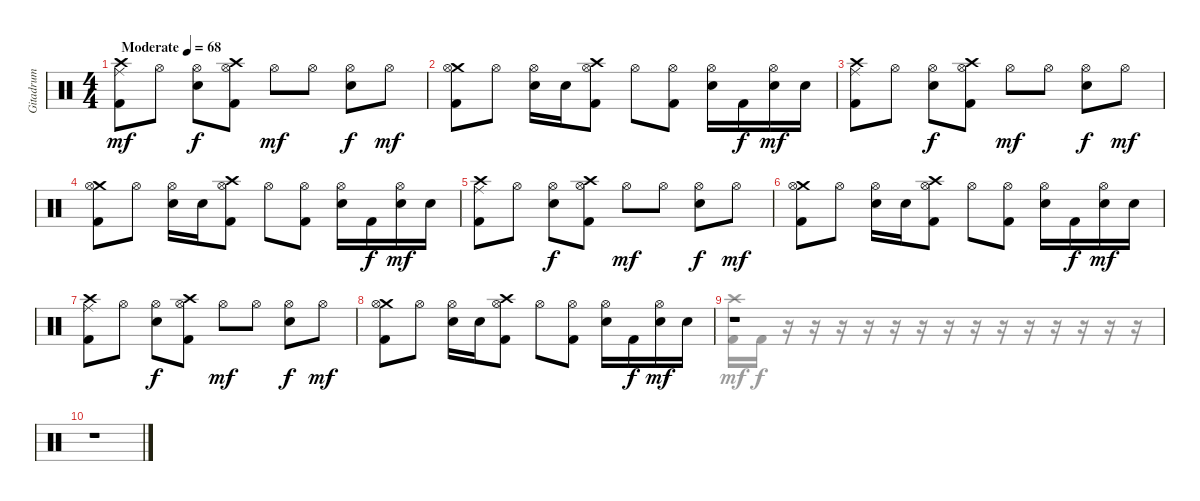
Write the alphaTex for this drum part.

\track ("Gitadrum" "Gitadrum") {instrument percussion}
\staff {score}
\articulation defaults
\voice
\ts (4 4)
\tempo (68 "Moderate")
\clef neutral
\ks c
("Ride (middle)" "Kick (hit) 2" "Crash high (hit)").8{dy mf} "Hi-Hat (open)".8 ("Hi-Hat (open)" "Electric Snare (hit)").8{dy f} ("Crash high (hit)" "Hi-Hat (open)" "Kick (hit) 2").8 "Hi-Hat (open)".8{dy mf} "Hi-Hat (open)".8 ("Hi-Hat (open)" "Electric Snare (hit)").8{dy f} "Hi-Hat (open)".8{dy mf} |
("Crash medium (hit)" "Hi-Hat (open)" "Kick (hit) 2").8 "Hi-Hat (open)".8 ("Hi-Hat (open)" "Electric Snare (hit)").16 "Electric Snare (hit)".16 ("Crash high (hit)" "Hi-Hat (open)" "Kick (hit) 2").8 "Hi-Hat (open)".8 ("Hi-Hat (open)" "Kick (hit) 2").8 ("Hi-Hat (open)" "Electric Snare (hit)").16 "Kick (hit) 2".16{dy f} ("Hi-Hat (open)" "Electric Snare (hit)").16{dy mf} "Electric Snare (hit)".16 |
("Ride (middle)" "Kick (hit) 2" "Crash high (hit)").8 "Hi-Hat (open)".8 ("Hi-Hat (open)" "Electric Snare (hit)").8{dy f} ("Crash high (hit)" "Hi-Hat (open)" "Kick (hit) 2").8 "Hi-Hat (open)".8{dy mf} "Hi-Hat (open)".8 ("Hi-Hat (open)" "Electric Snare (hit)").8{dy f} "Hi-Hat (open)".8{dy mf} |
("Crash medium (hit)" "Hi-Hat (open)" "Kick (hit) 2").8 "Hi-Hat (open)".8 ("Hi-Hat (open)" "Electric Snare (hit)").16 "Electric Snare (hit)".16 ("Crash high (hit)" "Hi-Hat (open)" "Kick (hit) 2").8 "Hi-Hat (open)".8 ("Hi-Hat (open)" "Kick (hit) 2").8 ("Hi-Hat (open)" "Electric Snare (hit)").16 "Kick (hit) 2".16{dy f} ("Hi-Hat (open)" "Electric Snare (hit)").16{dy mf} "Electric Snare (hit)".16 |
("Ride (middle)" "Kick (hit) 2" "Crash high (hit)").8 "Hi-Hat (open)".8 ("Hi-Hat (open)" "Electric Snare (hit)").8{dy f} ("Crash high (hit)" "Hi-Hat (open)" "Kick (hit) 2").8 "Hi-Hat (open)".8{dy mf} "Hi-Hat (open)".8 ("Hi-Hat (open)" "Electric Snare (hit)").8{dy f} "Hi-Hat (open)".8{dy mf} |
("Crash medium (hit)" "Hi-Hat (open)" "Kick (hit) 2").8 "Hi-Hat (open)".8 ("Hi-Hat (open)" "Electric Snare (hit)").16 "Electric Snare (hit)".16 ("Crash high (hit)" "Hi-Hat (open)" "Kick (hit) 2").8 "Hi-Hat (open)".8 ("Hi-Hat (open)" "Kick (hit) 2").8 ("Hi-Hat (open)" "Electric Snare (hit)").16 "Kick (hit) 2".16{dy f} ("Hi-Hat (open)" "Electric Snare (hit)").16{dy mf} "Electric Snare (hit)".16 |
("Ride (middle)" "Kick (hit) 2" "Crash high (hit)").8 "Hi-Hat (open)".8 ("Hi-Hat (open)" "Electric Snare (hit)").8{dy f} ("Crash high (hit)" "Hi-Hat (open)" "Kick (hit) 2").8 "Hi-Hat (open)".8{dy mf} "Hi-Hat (open)".8 ("Hi-Hat (open)" "Electric Snare (hit)").8{dy f} "Hi-Hat (open)".8{dy mf} |
("Crash medium (hit)" "Hi-Hat (open)" "Kick (hit) 2").8 "Hi-Hat (open)".8 ("Hi-Hat (open)" "Electric Snare (hit)").16 "Electric Snare (hit)".16 ("Crash high (hit)" "Hi-Hat (open)" "Kick (hit) 2").8 "Hi-Hat (open)".8 ("Hi-Hat (open)" "Kick (hit) 2").8 ("Hi-Hat (open)" "Electric Snare (hit)").16 "Kick (hit) 2".16{dy f} ("Hi-Hat (open)" "Electric Snare (hit)").16{dy mf} "Electric Snare (hit)".16 |
r.1 |
r.1
\voice
\clef neutral
\ottava regular
\simile none
\ks c
|
|
|
|
|
|
|
|
("Kick (hit) 2" "Crash high (hit)").16 "Kick (hit) 2".16{dy f} r.16 r.16 r.16 r.16 r.16 r.16 r.16 r.16 r.16 r.16 r.16 r.16 r.16 r.16 |
